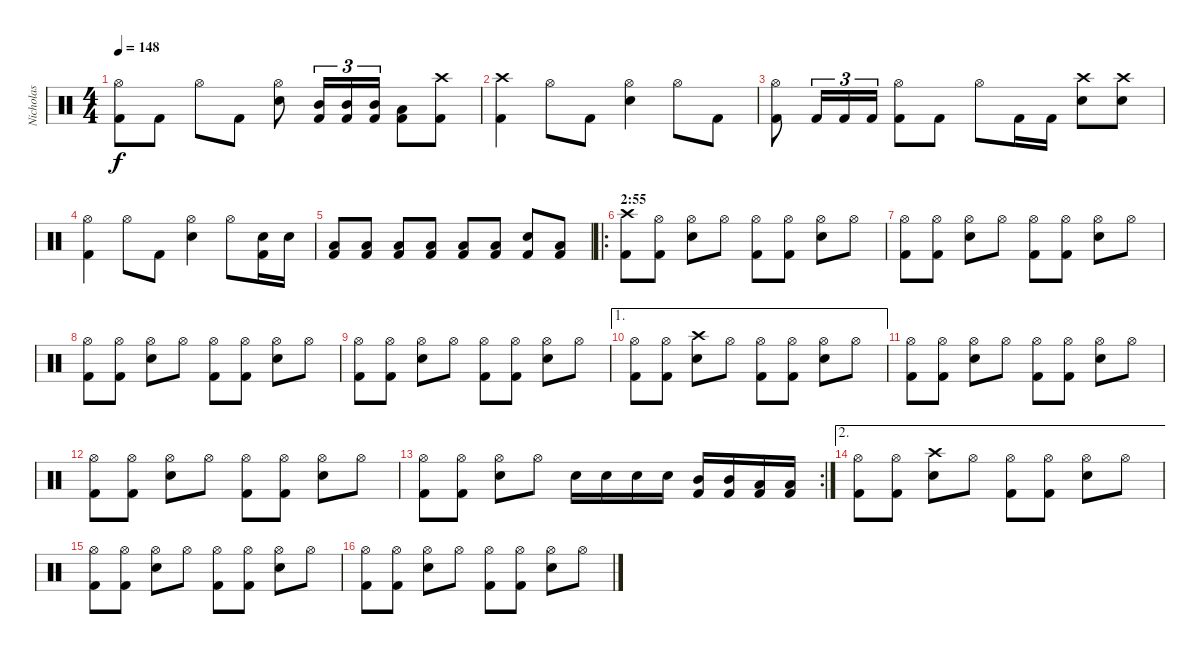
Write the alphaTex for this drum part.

\track ("Nicholas" "Nicholas") {instrument percussion}
\staff {score}
\articulation defaults
\ts (4 4)
\tempo 148
\clef neutral
\ks c
("Kick (hit) 2" "Hi-Hat (open)").8{dy f} "Kick (hit) 2".8 "Hi-Hat (open)".8 "Kick (hit) 2".8 ("Snare (hit) 2" "Hi-Hat (open)").8 ("Kick (hit) 2" "Mid Tom (hit)").16{tu (3 2)} ("Kick (hit) 2" "Mid Tom (hit)").16{tu (3 2)} ("Kick (hit) 2" "Mid Tom (hit)").16{tu (3 2)} ("Kick (hit) 2" "Low Tom (hit)").8 ("Kick (hit) 2" "Crash high (hit)").8 |
("Kick (hit) 2" "Crash high (hit)").4 "Hi-Hat (open)".8 "Kick (hit) 2".8 ("Snare (hit) 2" "Hi-Hat (open)").4 "Hi-Hat (open)".8 "Kick (hit) 2".8 |
("Kick (hit) 2" "Hi-Hat (open)").8 "Kick (hit) 2".16{tu (3 2)} "Kick (hit) 2".16{tu (3 2)} "Kick (hit) 2".16{tu (3 2)} ("Kick (hit) 2" "Hi-Hat (open)").8 "Kick (hit) 2".8 "Hi-Hat (open)".8 "Kick (hit) 2".16 "Kick (hit) 2".16 ("Snare (hit) 2" "Crash high (hit)").8 ("Snare (hit) 2" "Crash high (hit)").8 |
("Kick (hit) 2" "Hi-Hat (open)").4 "Hi-Hat (open)".8 "Kick (hit) 2".8 ("Snare (hit) 2" "Hi-Hat (open)").4 "Hi-Hat (open)".8 ("Kick (hit) 2" "Snare (hit) 2").16 "Snare (hit) 2".16 |
("Kick (hit) 2" "Low Tom (hit)").8 ("Kick (hit) 2" "Low Tom (hit)").8 ("Kick (hit) 2" "Low Tom (hit)").8 ("Kick (hit) 2" "Low Tom (hit)").8 ("Kick (hit) 2" "Low Tom (hit)").8 ("Kick (hit) 2" "Low Tom (hit)").8 ("Kick (hit) 2" "Snare (hit) 2").8 ("Kick (hit) 2" "Low Tom (hit)").8 |
\ro
\section ("" "2:55")
("Kick (hit) 2" "Crash high (hit)").8 ("Kick (hit) 2" "Hi-Hat (open)").8 ("Snare (hit) 2" "Hi-Hat (open)").8 "Hi-Hat (open)".8 ("Kick (hit) 2" "Hi-Hat (open)").8 ("Kick (hit) 2" "Hi-Hat (open)").8 ("Snare (hit) 2" "Hi-Hat (open)").8 "Hi-Hat (open)".8 |
("Kick (hit) 2" "Hi-Hat (open)").8 ("Kick (hit) 2" "Hi-Hat (open)").8 ("Snare (hit) 2" "Hi-Hat (open)").8 "Hi-Hat (open)".8 ("Kick (hit) 2" "Hi-Hat (open)").8 ("Kick (hit) 2" "Hi-Hat (open)").8 ("Snare (hit) 2" "Hi-Hat (open)").8 "Hi-Hat (open)".8 |
("Kick (hit) 2" "Hi-Hat (open)").8 ("Kick (hit) 2" "Hi-Hat (open)").8 ("Snare (hit) 2" "Hi-Hat (open)").8 "Hi-Hat (open)".8 ("Kick (hit) 2" "Hi-Hat (open)").8 ("Kick (hit) 2" "Hi-Hat (open)").8 ("Snare (hit) 2" "Hi-Hat (open)").8 "Hi-Hat (open)".8 |
("Kick (hit) 2" "Hi-Hat (open)").8 ("Kick (hit) 2" "Hi-Hat (open)").8 ("Snare (hit) 2" "Hi-Hat (open)").8 "Hi-Hat (open)".8 ("Kick (hit) 2" "Hi-Hat (open)").8 ("Kick (hit) 2" "Hi-Hat (open)").8 ("Snare (hit) 2" "Hi-Hat (open)").8 "Hi-Hat (open)".8 |
\ae 1
("Kick (hit) 2" "Hi-Hat (open)").8 ("Kick (hit) 2" "Hi-Hat (open)").8 ("Snare (hit) 2" "Crash high (hit)").8 "Hi-Hat (open)".8 ("Kick (hit) 2" "Hi-Hat (open)").8 ("Kick (hit) 2" "Hi-Hat (open)").8 ("Snare (hit) 2" "Hi-Hat (open)").8 "Hi-Hat (open)".8 |
("Kick (hit) 2" "Hi-Hat (open)").8 ("Kick (hit) 2" "Hi-Hat (open)").8 ("Snare (hit) 2" "Hi-Hat (open)").8 "Hi-Hat (open)".8 ("Kick (hit) 2" "Hi-Hat (open)").8 ("Kick (hit) 2" "Hi-Hat (open)").8 ("Snare (hit) 2" "Hi-Hat (open)").8 "Hi-Hat (open)".8 |
("Kick (hit) 2" "Hi-Hat (open)").8 ("Kick (hit) 2" "Hi-Hat (open)").8 ("Snare (hit) 2" "Hi-Hat (open)").8 "Hi-Hat (open)".8 ("Kick (hit) 2" "Hi-Hat (open)").8 ("Kick (hit) 2" "Hi-Hat (open)").8 ("Snare (hit) 2" "Hi-Hat (open)").8 "Hi-Hat (open)".8 |
\rc 2
("Kick (hit) 2" "Hi-Hat (open)").8 ("Kick (hit) 2" "Hi-Hat (open)").8 ("Snare (hit) 2" "Hi-Hat (open)").8 "Hi-Hat (open)".8 "Snare (hit) 2".16 "Snare (hit) 2".16 "Snare (hit) 2".16 "Snare (hit) 2".16 ("Kick (hit) 2" "Mid Tom (hit)").16 ("Kick (hit) 2" "Mid Tom (hit)").16 ("Kick (hit) 2" "Low Tom (hit)").16 ("Kick (hit) 2" "Low Tom (hit)").16 |
\ae 2
("Kick (hit) 2" "Hi-Hat (open)").8 ("Kick (hit) 2" "Hi-Hat (open)").8 ("Snare (hit) 2" "Crash high (hit)").8 "Hi-Hat (open)".8 ("Kick (hit) 2" "Hi-Hat (open)").8 ("Kick (hit) 2" "Hi-Hat (open)").8 ("Snare (hit) 2" "Hi-Hat (open)").8 "Hi-Hat (open)".8 |
("Kick (hit) 2" "Hi-Hat (open)").8 ("Kick (hit) 2" "Hi-Hat (open)").8 ("Snare (hit) 2" "Hi-Hat (open)").8 "Hi-Hat (open)".8 ("Kick (hit) 2" "Hi-Hat (open)").8 ("Kick (hit) 2" "Hi-Hat (open)").8 ("Snare (hit) 2" "Hi-Hat (open)").8 "Hi-Hat (open)".8 |
("Kick (hit) 2" "Hi-Hat (open)").8 ("Kick (hit) 2" "Hi-Hat (open)").8 ("Snare (hit) 2" "Hi-Hat (open)").8 "Hi-Hat (open)".8 ("Kick (hit) 2" "Hi-Hat (open)").8 ("Kick (hit) 2" "Hi-Hat (open)").8 ("Snare (hit) 2" "Hi-Hat (open)").8 "Hi-Hat (open)".8
